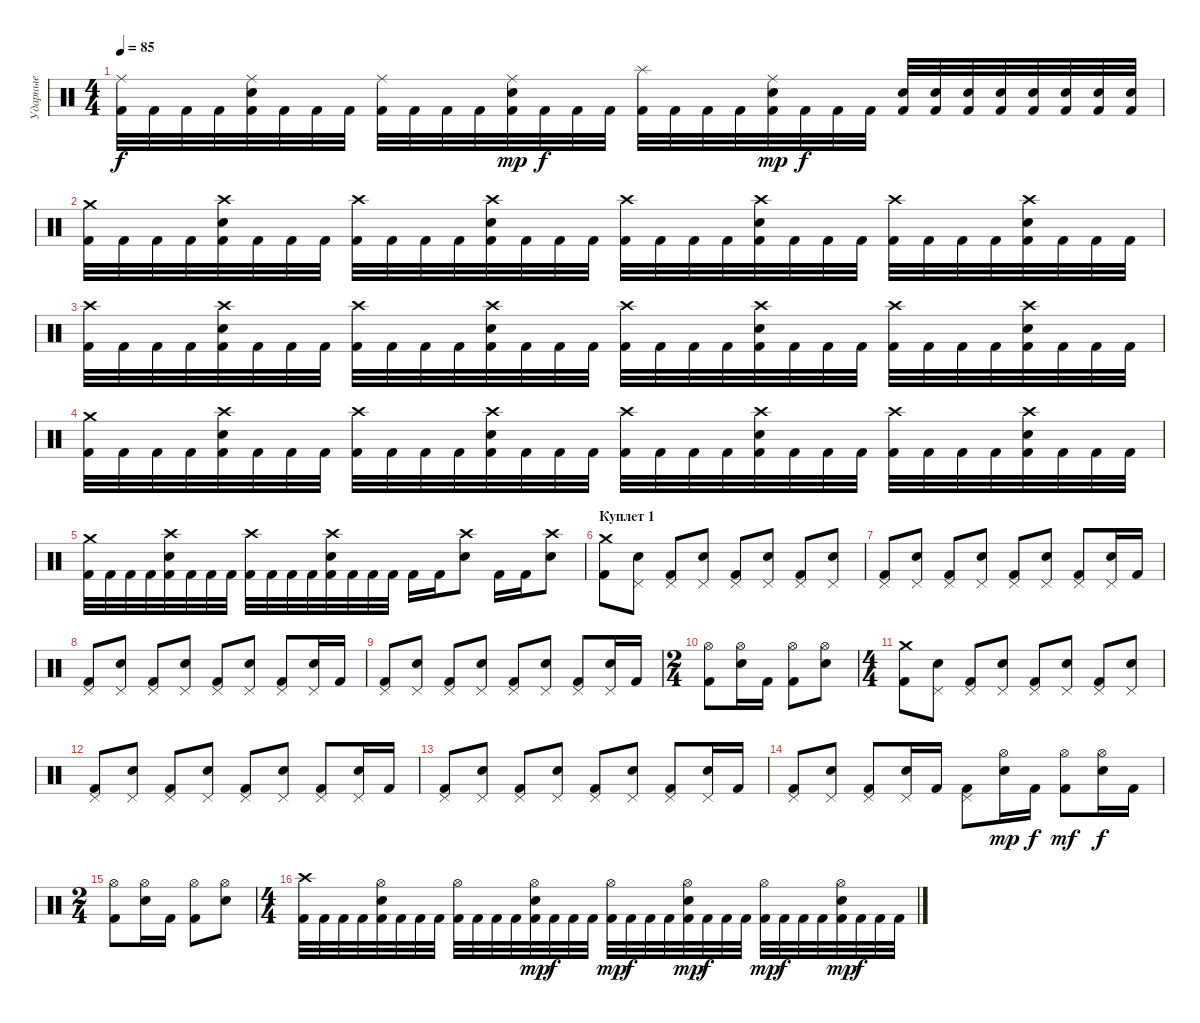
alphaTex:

\track ("Ударные" "Ударные") {instrument percussion}
\staff {score}
\articulation defaults
\ts (4 4)
\tempo 85
\clef neutral
\ks c
("Ride (middle)" "Kick (hit) 2").32{dy f} "Kick (hit) 2".32 "Kick (hit) 2".32 "Kick (hit) 2".32 ("Ride (middle)" "Snare (hit) 2" "Kick (hit) 2").32 "Kick (hit) 2".32 "Kick (hit) 2".32 "Kick (hit) 2".32 ("Ride (middle)" "Kick (hit) 2").32 "Kick (hit) 2".32 "Kick (hit) 2".32 "Kick (hit) 2".32 ("Ride (middle)" "Snare (hit) 2" "Kick (hit) 2").32{dy mp} "Kick (hit) 2".32{dy f} "Kick (hit) 2".32 "Kick (hit) 2".32 ("Splash (hit)" "Kick (hit) 2").32 "Kick (hit) 2".32 "Kick (hit) 2".32 "Kick (hit) 2".32 ("Ride (middle)" "Snare (hit) 2" "Kick (hit) 2").32{dy mp} "Kick (hit) 2".32{dy f} "Kick (hit) 2".32 "Kick (hit) 2".32 ("Snare (hit) 2" "Kick (hit) 2").32 ("Snare (hit) 2" "Kick (hit) 2").32 ("Snare (hit) 2" "Kick (hit) 2").32 ("Snare (hit) 2" "Kick (hit) 2").32 ("Snare (hit) 2" "Kick (hit) 2").32 ("Snare (hit) 2" "Kick (hit) 2").32 ("Snare (hit) 2" "Kick (hit) 2").32 ("Snare (hit) 2" "Kick (hit) 2").32 |
("Crash medium (hit)" "Kick (hit) 2").32 "Kick (hit) 2".32 "Kick (hit) 2".32 "Kick (hit) 2".32 ("Crash high (hit)" "Snare (hit) 2" "Kick (hit) 2").32 "Kick (hit) 2".32 "Kick (hit) 2".32 "Kick (hit) 2".32 ("Crash high (hit)" "Kick (hit) 2").32 "Kick (hit) 2".32 "Kick (hit) 2".32 "Kick (hit) 2".32 ("Crash high (hit)" "Snare (hit) 2" "Kick (hit) 2").32 "Kick (hit) 2".32 "Kick (hit) 2".32 "Kick (hit) 2".32 ("Crash high (hit)" "Kick (hit) 2").32 "Kick (hit) 2".32 "Kick (hit) 2".32 "Kick (hit) 2".32 ("Crash high (hit)" "Snare (hit) 2" "Kick (hit) 2").32 "Kick (hit) 2".32 "Kick (hit) 2".32 "Kick (hit) 2".32 ("Crash high (hit)" "Kick (hit) 2").32 "Kick (hit) 2".32 "Kick (hit) 2".32 "Kick (hit) 2".32 ("Crash high (hit)" "Snare (hit) 2" "Kick (hit) 2").32 "Kick (hit) 2".32 "Kick (hit) 2".32 "Kick (hit) 2".32 |
("Crash high (hit)" "Kick (hit) 2").32 "Kick (hit) 2".32 "Kick (hit) 2".32 "Kick (hit) 2".32 ("Crash high (hit)" "Snare (hit) 2" "Kick (hit) 2").32 "Kick (hit) 2".32 "Kick (hit) 2".32 "Kick (hit) 2".32 ("Crash high (hit)" "Kick (hit) 2").32 "Kick (hit) 2".32 "Kick (hit) 2".32 "Kick (hit) 2".32 ("Crash high (hit)" "Snare (hit) 2" "Kick (hit) 2").32 "Kick (hit) 2".32 "Kick (hit) 2".32 "Kick (hit) 2".32 ("Crash high (hit)" "Kick (hit) 2").32 "Kick (hit) 2".32 "Kick (hit) 2".32 "Kick (hit) 2".32 ("Crash high (hit)" "Snare (hit) 2" "Kick (hit) 2").32 "Kick (hit) 2".32 "Kick (hit) 2".32 "Kick (hit) 2".32 ("Crash high (hit)" "Kick (hit) 2").32 "Kick (hit) 2".32 "Kick (hit) 2".32 "Kick (hit) 2".32 ("Crash high (hit)" "Snare (hit) 2" "Kick (hit) 2").32 "Kick (hit) 2".32 "Kick (hit) 2".32 "Kick (hit) 2".32 |
("Crash medium (hit)" "Kick (hit) 2").32 "Kick (hit) 2".32 "Kick (hit) 2".32 "Kick (hit) 2".32 ("Crash high (hit)" "Snare (hit) 2" "Kick (hit) 2").32 "Kick (hit) 2".32 "Kick (hit) 2".32 "Kick (hit) 2".32 ("Crash high (hit)" "Kick (hit) 2").32 "Kick (hit) 2".32 "Kick (hit) 2".32 "Kick (hit) 2".32 ("Crash high (hit)" "Snare (hit) 2" "Kick (hit) 2").32 "Kick (hit) 2".32 "Kick (hit) 2".32 "Kick (hit) 2".32 ("Crash high (hit)" "Kick (hit) 2").32 "Kick (hit) 2".32 "Kick (hit) 2".32 "Kick (hit) 2".32 ("Crash high (hit)" "Snare (hit) 2" "Kick (hit) 2").32 "Kick (hit) 2".32 "Kick (hit) 2".32 "Kick (hit) 2".32 ("Crash high (hit)" "Kick (hit) 2").32 "Kick (hit) 2".32 "Kick (hit) 2".32 "Kick (hit) 2".32 ("Crash high (hit)" "Snare (hit) 2" "Kick (hit) 2").32 "Kick (hit) 2".32 "Kick (hit) 2".32 "Kick (hit) 2".32 |
("Crash medium (hit)" "Kick (hit) 2").32 "Kick (hit) 2".32 "Kick (hit) 2".32 "Kick (hit) 2".32 ("Crash high (hit)" "Snare (hit) 2" "Kick (hit) 2").32 "Kick (hit) 2".32 "Kick (hit) 2".32 "Kick (hit) 2".32 ("Crash high (hit)" "Kick (hit) 2").32 "Kick (hit) 2".32 "Kick (hit) 2".32 "Kick (hit) 2".32 ("Crash high (hit)" "Snare (hit) 2" "Kick (hit) 2").32 "Kick (hit) 2".32 "Kick (hit) 2".32 "Kick (hit) 2".32 "Kick (hit) 2".16 "Kick (hit) 2".16 ("Crash high (hit)" "Snare (hit) 2").8 "Kick (hit) 2".16 "Kick (hit) 2".16 ("Crash high (hit)" "Snare (hit) 2").8 |
\section ("" "Куплет 1")
("Crash medium (hit)" "Kick (hit) 2").8 ("Pedal Hi-Hat (hit)" "Snare (hit) 2").8 ("Pedal Hi-Hat (hit)" "Kick (hit) 2").8 ("Pedal Hi-Hat (hit)" "Snare (hit) 2").8 ("Pedal Hi-Hat (hit)" "Kick (hit) 2").8 ("Pedal Hi-Hat (hit)" "Snare (hit) 2").8 ("Pedal Hi-Hat (hit)" "Kick (hit) 2").8 ("Pedal Hi-Hat (hit)" "Snare (hit) 2").8 |
("Pedal Hi-Hat (hit)" "Kick (hit) 2").8 ("Pedal Hi-Hat (hit)" "Snare (hit) 2").8 ("Pedal Hi-Hat (hit)" "Kick (hit) 2").8 ("Pedal Hi-Hat (hit)" "Snare (hit) 2").8 ("Pedal Hi-Hat (hit)" "Kick (hit) 2").8 ("Pedal Hi-Hat (hit)" "Snare (hit) 2").8 ("Pedal Hi-Hat (hit)" "Kick (hit) 2").8 ("Pedal Hi-Hat (hit)" "Snare (hit) 2").16 "Kick (hit) 2".16 |
("Pedal Hi-Hat (hit)" "Kick (hit) 2").8 ("Pedal Hi-Hat (hit)" "Snare (hit) 2").8 ("Pedal Hi-Hat (hit)" "Kick (hit) 2").8 ("Pedal Hi-Hat (hit)" "Snare (hit) 2").8 ("Pedal Hi-Hat (hit)" "Kick (hit) 2").8 ("Pedal Hi-Hat (hit)" "Snare (hit) 2").8 ("Pedal Hi-Hat (hit)" "Kick (hit) 2").8 ("Pedal Hi-Hat (hit)" "Snare (hit) 2").16 "Kick (hit) 2".16 |
("Pedal Hi-Hat (hit)" "Kick (hit) 2").8 ("Pedal Hi-Hat (hit)" "Snare (hit) 2").8 ("Pedal Hi-Hat (hit)" "Kick (hit) 2").8 ("Pedal Hi-Hat (hit)" "Snare (hit) 2").8 ("Pedal Hi-Hat (hit)" "Kick (hit) 2").8 ("Pedal Hi-Hat (hit)" "Snare (hit) 2").8 ("Pedal Hi-Hat (hit)" "Kick (hit) 2").8 ("Pedal Hi-Hat (hit)" "Snare (hit) 2").16 "Kick (hit) 2".16 |
\ts (2 4)
("Hi-Hat (open)" "Kick (hit) 2").8 ("Hi-Hat (open)" "Snare (hit) 2").16 "Kick (hit) 2".16 ("Hi-Hat (open)" "Kick (hit) 2").8 ("Hi-Hat (open)" "Snare (hit) 2").8 |
\ts (4 4)
("Crash medium (hit)" "Kick (hit) 2").8 ("Pedal Hi-Hat (hit)" "Snare (hit) 2").8 ("Pedal Hi-Hat (hit)" "Kick (hit) 2").8 ("Pedal Hi-Hat (hit)" "Snare (hit) 2").8 ("Pedal Hi-Hat (hit)" "Kick (hit) 2").8 ("Pedal Hi-Hat (hit)" "Snare (hit) 2").8 ("Pedal Hi-Hat (hit)" "Kick (hit) 2").8 ("Pedal Hi-Hat (hit)" "Snare (hit) 2").8 |
("Pedal Hi-Hat (hit)" "Kick (hit) 2").8 ("Pedal Hi-Hat (hit)" "Snare (hit) 2").8 ("Pedal Hi-Hat (hit)" "Kick (hit) 2").8 ("Pedal Hi-Hat (hit)" "Snare (hit) 2").8 ("Pedal Hi-Hat (hit)" "Kick (hit) 2").8 ("Pedal Hi-Hat (hit)" "Snare (hit) 2").8 ("Pedal Hi-Hat (hit)" "Kick (hit) 2").8 ("Pedal Hi-Hat (hit)" "Snare (hit) 2").16 "Kick (hit) 2".16 |
("Pedal Hi-Hat (hit)" "Kick (hit) 2").8 ("Pedal Hi-Hat (hit)" "Snare (hit) 2").8 ("Pedal Hi-Hat (hit)" "Kick (hit) 2").8 ("Pedal Hi-Hat (hit)" "Snare (hit) 2").8 ("Pedal Hi-Hat (hit)" "Kick (hit) 2").8 ("Pedal Hi-Hat (hit)" "Snare (hit) 2").8 ("Pedal Hi-Hat (hit)" "Kick (hit) 2").8 ("Pedal Hi-Hat (hit)" "Snare (hit) 2").16 "Kick (hit) 2".16 |
("Pedal Hi-Hat (hit)" "Kick (hit) 2").8 ("Pedal Hi-Hat (hit)" "Snare (hit) 2").8 ("Pedal Hi-Hat (hit)" "Kick (hit) 2").8 ("Pedal Hi-Hat (hit)" "Snare (hit) 2").16 "Kick (hit) 2".16 ("Pedal Hi-Hat (hit)" "Kick (hit) 2").8 ("Hi-Hat (open)" "Snare (hit) 2").16{dy mp} "Kick (hit) 2".16{dy f} ("Hi-Hat (open)" "Kick (hit) 2").8{dy mf} ("Hi-Hat (open)" "Snare (hit) 2").16{dy f} "Kick (hit) 2".16 |
\ts (2 4)
("Hi-Hat (open)" "Kick (hit) 2").8 ("Hi-Hat (open)" "Snare (hit) 2").16 "Kick (hit) 2".16 ("Hi-Hat (open)" "Kick (hit) 2").8 ("Hi-Hat (open)" "Snare (hit) 2").8 |
\ts (4 4)
("Crash high (hit)" "Kick (hit) 2").32 "Kick (hit) 2".32 "Kick (hit) 2".32 "Kick (hit) 2".32 ("Hi-Hat (open)" "Snare (hit) 2" "Kick (hit) 2").32 "Kick (hit) 2".32 "Kick (hit) 2".32 "Kick (hit) 2".32 ("Hi-Hat (open)" "Kick (hit) 2").32 "Kick (hit) 2".32 "Kick (hit) 2".32 "Kick (hit) 2".32 ("Hi-Hat (open)" "Snare (hit) 2" "Kick (hit) 2").32{dy mp} "Kick (hit) 2".32{dy f} "Kick (hit) 2".32 "Kick (hit) 2".32 ("Hi-Hat (open)" "Kick (hit) 2").32{dy mp} "Kick (hit) 2".32{dy f} "Kick (hit) 2".32 "Kick (hit) 2".32 ("Hi-Hat (open)" "Snare (hit) 2" "Kick (hit) 2").32{dy mp} "Kick (hit) 2".32{dy f} "Kick (hit) 2".32 "Kick (hit) 2".32 ("Hi-Hat (open)" "Kick (hit) 2").32{dy mp} "Kick (hit) 2".32{dy f} "Kick (hit) 2".32 "Kick (hit) 2".32 ("Hi-Hat (open)" "Snare (hit) 2" "Kick (hit) 2").32{dy mp} "Kick (hit) 2".32{dy f} "Kick (hit) 2".32 "Kick (hit) 2".32
